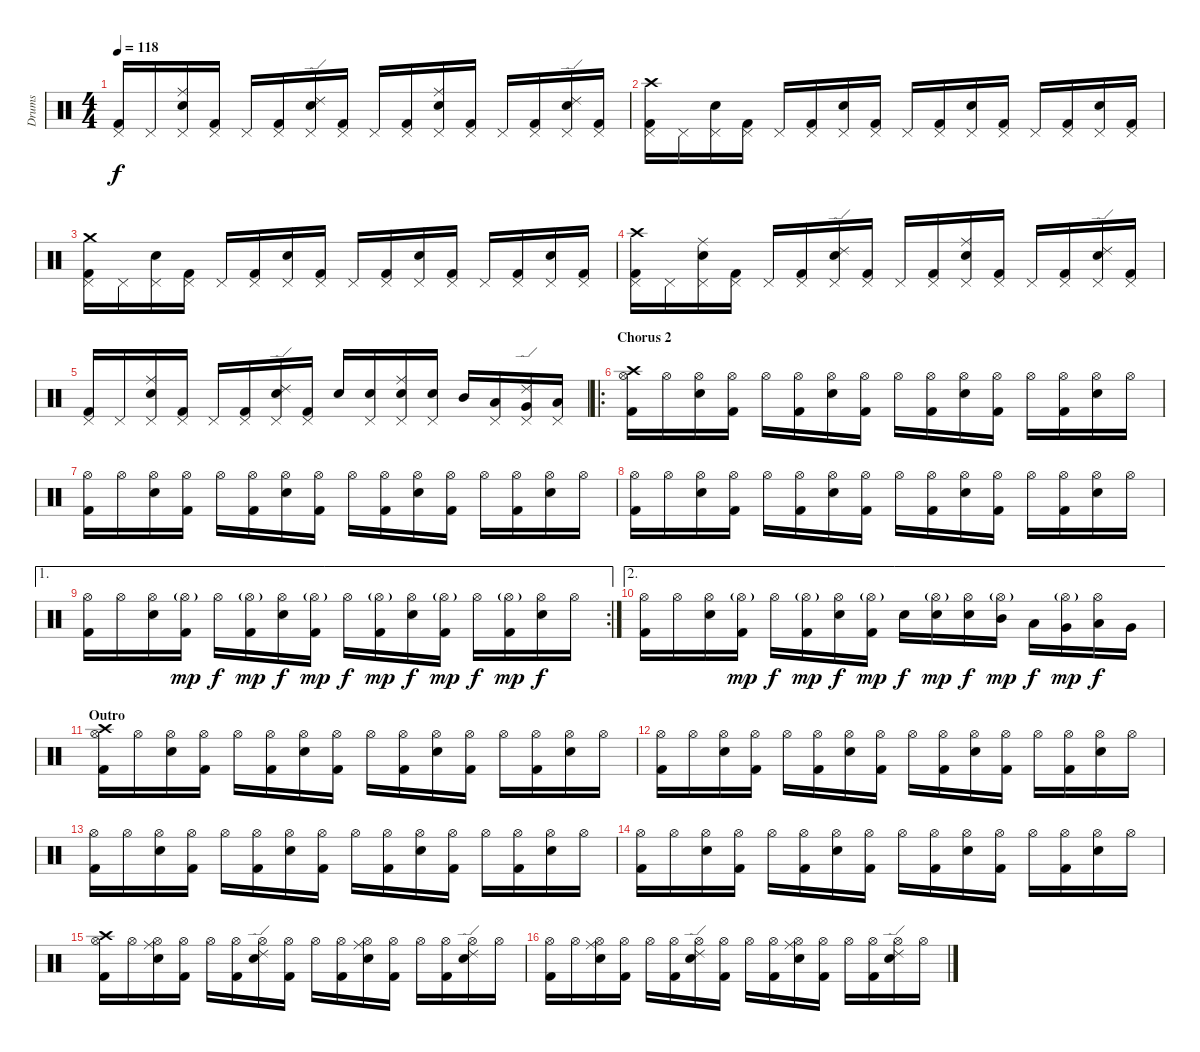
\track ("Drums" "Drums") {instrument percussion}
\staff {score}
\articulation defaults
\ts (4 4)
\tempo 118
\clef neutral
\ks c
("Kick (hit) 2" "Pedal Hi-Hat (hit)").16{dy f} "Pedal Hi-Hat (hit)".16 ("Snare (hit) 2" "Pedal Hi-Hat (hit)" "Ride (middle)").16 ("Kick (hit) 2" "Pedal Hi-Hat (hit)").16 "Pedal Hi-Hat (hit)".16 ("Kick (hit) 2" "Pedal Hi-Hat (hit)").16 ("Snare (hit) 2" "Pedal Hi-Hat (hit)" "Ride (edge) 2").16 ("Kick (hit) 2" "Pedal Hi-Hat (hit)").16 "Pedal Hi-Hat (hit)".16 ("Kick (hit) 2" "Pedal Hi-Hat (hit)").16 ("Snare (hit) 2" "Pedal Hi-Hat (hit)" "Ride (middle)").16 ("Kick (hit) 2" "Pedal Hi-Hat (hit)").16 "Pedal Hi-Hat (hit)".16 ("Kick (hit) 2" "Pedal Hi-Hat (hit)").16 ("Snare (hit) 2" "Pedal Hi-Hat (hit)" "Ride (edge) 2").16 ("Kick (hit) 2" "Pedal Hi-Hat (hit)").16 |
("Kick (hit) 2" "Pedal Hi-Hat (hit)" "Crash high (hit)").16 "Pedal Hi-Hat (hit)".16 ("Snare (hit) 2" "Pedal Hi-Hat (hit)").16 ("Kick (hit) 2" "Pedal Hi-Hat (hit)").16 "Pedal Hi-Hat (hit)".16 ("Kick (hit) 2" "Pedal Hi-Hat (hit)").16 ("Snare (hit) 2" "Pedal Hi-Hat (hit)").16 ("Kick (hit) 2" "Pedal Hi-Hat (hit)").16 "Pedal Hi-Hat (hit)".16 ("Kick (hit) 2" "Pedal Hi-Hat (hit)").16 ("Snare (hit) 2" "Pedal Hi-Hat (hit)").16 ("Kick (hit) 2" "Pedal Hi-Hat (hit)").16 "Pedal Hi-Hat (hit)".16 ("Kick (hit) 2" "Pedal Hi-Hat (hit)").16 ("Snare (hit) 2" "Pedal Hi-Hat (hit)").16 ("Kick (hit) 2" "Pedal Hi-Hat (hit)").16 |
("Kick (hit) 2" "Pedal Hi-Hat (hit)" "Crash medium (hit)").16 "Pedal Hi-Hat (hit)".16 ("Snare (hit) 2" "Pedal Hi-Hat (hit)").16 ("Kick (hit) 2" "Pedal Hi-Hat (hit)").16 "Pedal Hi-Hat (hit)".16 ("Kick (hit) 2" "Pedal Hi-Hat (hit)").16 ("Snare (hit) 2" "Pedal Hi-Hat (hit)").16 ("Kick (hit) 2" "Pedal Hi-Hat (hit)").16 "Pedal Hi-Hat (hit)".16 ("Kick (hit) 2" "Pedal Hi-Hat (hit)").16 ("Snare (hit) 2" "Pedal Hi-Hat (hit)").16 ("Kick (hit) 2" "Pedal Hi-Hat (hit)").16 "Pedal Hi-Hat (hit)".16 ("Kick (hit) 2" "Pedal Hi-Hat (hit)").16 ("Snare (hit) 2" "Pedal Hi-Hat (hit)").16 ("Kick (hit) 2" "Pedal Hi-Hat (hit)").16 |
("Kick (hit) 2" "Pedal Hi-Hat (hit)" "Crash high (hit)").16 "Pedal Hi-Hat (hit)".16 ("Snare (hit) 2" "Pedal Hi-Hat (hit)" "Ride (middle)").16 ("Kick (hit) 2" "Pedal Hi-Hat (hit)").16 "Pedal Hi-Hat (hit)".16 ("Kick (hit) 2" "Pedal Hi-Hat (hit)").16 ("Snare (hit) 2" "Pedal Hi-Hat (hit)" "Ride (edge) 2").16 ("Kick (hit) 2" "Pedal Hi-Hat (hit)").16 "Pedal Hi-Hat (hit)".16 ("Kick (hit) 2" "Pedal Hi-Hat (hit)").16 ("Snare (hit) 2" "Pedal Hi-Hat (hit)" "Ride (middle)").16 ("Kick (hit) 2" "Pedal Hi-Hat (hit)").16 "Pedal Hi-Hat (hit)".16 ("Kick (hit) 2" "Pedal Hi-Hat (hit)").16 ("Snare (hit) 2" "Pedal Hi-Hat (hit)" "Ride (edge) 2").16 ("Kick (hit) 2" "Pedal Hi-Hat (hit)").16 |
("Kick (hit) 2" "Pedal Hi-Hat (hit)").16 "Pedal Hi-Hat (hit)".16 ("Snare (hit) 2" "Pedal Hi-Hat (hit)" "Ride (middle)").16 ("Kick (hit) 2" "Pedal Hi-Hat (hit)").16 "Pedal Hi-Hat (hit)".16 ("Kick (hit) 2" "Pedal Hi-Hat (hit)").16 ("Snare (hit) 2" "Pedal Hi-Hat (hit)" "Ride (edge) 2").16 ("Kick (hit) 2" "Pedal Hi-Hat (hit)").16 "Snare (hit) 2".16 ("Snare (hit) 2" "Pedal Hi-Hat (hit)").16 ("Snare (hit) 2" "Pedal Hi-Hat (hit)" "Ride (middle)").16 ("Snare (hit) 2" "Pedal Hi-Hat (hit)").16 "Mid Tom (hit)".16 ("Low Tom (hit)" "Pedal Hi-Hat (hit)").16 ("Very Low Tom (hit)" "Pedal Hi-Hat (hit)" "Ride (edge) 2").16 ("Low Floor Tom (hit)" "Pedal Hi-Hat (hit)").16 |
\ro
\section ("" "Chorus 2")
("Kick (hit) 2" "Hi-Hat (open)" "Crash high (hit)").16 "Hi-Hat (open)".16 ("Snare (hit) 2" "Hi-Hat (open)").16 ("Kick (hit) 2" "Hi-Hat (open)").16 "Hi-Hat (open)".16 ("Kick (hit) 2" "Hi-Hat (open)").16 ("Snare (hit) 2" "Hi-Hat (open)").16 ("Kick (hit) 2" "Hi-Hat (open)").16 "Hi-Hat (open)".16 ("Kick (hit) 2" "Hi-Hat (open)").16 ("Snare (hit) 2" "Hi-Hat (open)").16 ("Kick (hit) 2" "Hi-Hat (open)").16 "Hi-Hat (open)".16 ("Kick (hit) 2" "Hi-Hat (open)").16 ("Snare (hit) 2" "Hi-Hat (open)").16 "Hi-Hat (open)".16 |
("Kick (hit) 2" "Hi-Hat (open)").16 "Hi-Hat (open)".16 ("Snare (hit) 2" "Hi-Hat (open)").16 ("Kick (hit) 2" "Hi-Hat (open)").16 "Hi-Hat (open)".16 ("Kick (hit) 2" "Hi-Hat (open)").16 ("Snare (hit) 2" "Hi-Hat (open)").16 ("Kick (hit) 2" "Hi-Hat (open)").16 "Hi-Hat (open)".16 ("Kick (hit) 2" "Hi-Hat (open)").16 ("Snare (hit) 2" "Hi-Hat (open)").16 ("Kick (hit) 2" "Hi-Hat (open)").16 "Hi-Hat (open)".16 ("Kick (hit) 2" "Hi-Hat (open)").16 ("Snare (hit) 2" "Hi-Hat (open)").16 "Hi-Hat (open)".16 |
("Kick (hit) 2" "Hi-Hat (open)").16 "Hi-Hat (open)".16 ("Snare (hit) 2" "Hi-Hat (open)").16 ("Kick (hit) 2" "Hi-Hat (open)").16 "Hi-Hat (open)".16 ("Kick (hit) 2" "Hi-Hat (open)").16 ("Snare (hit) 2" "Hi-Hat (open)").16 ("Kick (hit) 2" "Hi-Hat (open)").16 "Hi-Hat (open)".16 ("Kick (hit) 2" "Hi-Hat (open)").16 ("Snare (hit) 2" "Hi-Hat (open)").16 ("Kick (hit) 2" "Hi-Hat (open)").16 "Hi-Hat (open)".16 ("Kick (hit) 2" "Hi-Hat (open)").16 ("Snare (hit) 2" "Hi-Hat (open)").16 "Hi-Hat (open)".16 |
\ae 1
\rc 2
("Kick (hit) 2" "Hi-Hat (open)").16 "Hi-Hat (open)".16 ("Snare (hit) 2" "Hi-Hat (open)").16 ("Kick (hit) 2" "Hi-Hat (open)"{g}).16{dy mp} "Hi-Hat (open)".16{dy f} ("Kick (hit) 2" "Hi-Hat (open)"{g}).16{dy mp} ("Snare (hit) 2" "Hi-Hat (open)").16{dy f} ("Kick (hit) 2" "Hi-Hat (open)"{g}).16{dy mp} "Hi-Hat (open)".16{dy f} ("Kick (hit) 2" "Hi-Hat (open)"{g}).16{dy mp} ("Snare (hit) 2" "Hi-Hat (open)").16{dy f} ("Kick (hit) 2" "Hi-Hat (open)"{g}).16{dy mp} "Hi-Hat (open)".16{dy f} ("Kick (hit) 2" "Hi-Hat (open)"{g}).16{dy mp} ("Snare (hit) 2" "Hi-Hat (open)").16{dy f} "Hi-Hat (open)".16 |
\ae 2
("Kick (hit) 2" "Hi-Hat (open)").16 "Hi-Hat (open)".16 ("Snare (hit) 2" "Hi-Hat (open)").16 ("Kick (hit) 2" "Hi-Hat (open)"{g}).16{dy mp} "Hi-Hat (open)".16{dy f} ("Kick (hit) 2" "Hi-Hat (open)"{g}).16{dy mp} ("Snare (hit) 2" "Hi-Hat (open)").16{dy f} ("Kick (hit) 2" "Hi-Hat (open)"{g}).16{dy mp} "Snare (hit) 2".16{dy f} ("Snare (hit) 2" "Hi-Hat (open)"{g}).16{dy mp} ("Snare (hit) 2" "Hi-Hat (open)").16{dy f} ("Mid Tom (hit)" "Hi-Hat (open)"{g}).16{dy mp} "Low Tom (hit)".16{dy f} ("Very Low Tom (hit)" "Hi-Hat (open)"{g}).16{dy mp} ("Low Floor Tom (hit)" "Hi-Hat (open)").16{dy f} "Very Low Tom (hit)".16 |
\section ("" "Outro")
("Kick (hit) 2" "Hi-Hat (open)" "Crash high (hit)").16 "Hi-Hat (open)".16 ("Snare (hit) 2" "Hi-Hat (open)").16 ("Kick (hit) 2" "Hi-Hat (open)").16 "Hi-Hat (open)".16 ("Kick (hit) 2" "Hi-Hat (open)").16 ("Snare (hit) 2" "Hi-Hat (open)").16 ("Kick (hit) 2" "Hi-Hat (open)").16 "Hi-Hat (open)".16 ("Kick (hit) 2" "Hi-Hat (open)").16 ("Snare (hit) 2" "Hi-Hat (open)").16 ("Kick (hit) 2" "Hi-Hat (open)").16 "Hi-Hat (open)".16 ("Kick (hit) 2" "Hi-Hat (open)").16 ("Snare (hit) 2" "Hi-Hat (open)").16 "Hi-Hat (open)".16 |
("Kick (hit) 2" "Hi-Hat (open)").16 "Hi-Hat (open)".16 ("Snare (hit) 2" "Hi-Hat (open)").16 ("Kick (hit) 2" "Hi-Hat (open)").16 "Hi-Hat (open)".16 ("Kick (hit) 2" "Hi-Hat (open)").16 ("Snare (hit) 2" "Hi-Hat (open)").16 ("Kick (hit) 2" "Hi-Hat (open)").16 "Hi-Hat (open)".16 ("Kick (hit) 2" "Hi-Hat (open)").16 ("Snare (hit) 2" "Hi-Hat (open)").16 ("Kick (hit) 2" "Hi-Hat (open)").16 "Hi-Hat (open)".16 ("Kick (hit) 2" "Hi-Hat (open)").16 ("Snare (hit) 2" "Hi-Hat (open)").16 "Hi-Hat (open)".16 |
("Kick (hit) 2" "Hi-Hat (open)").16 "Hi-Hat (open)".16 ("Snare (hit) 2" "Hi-Hat (open)").16 ("Kick (hit) 2" "Hi-Hat (open)").16 "Hi-Hat (open)".16 ("Kick (hit) 2" "Hi-Hat (open)").16 ("Snare (hit) 2" "Hi-Hat (open)").16 ("Kick (hit) 2" "Hi-Hat (open)").16 "Hi-Hat (open)".16 ("Kick (hit) 2" "Hi-Hat (open)").16 ("Snare (hit) 2" "Hi-Hat (open)").16 ("Kick (hit) 2" "Hi-Hat (open)").16 "Hi-Hat (open)".16 ("Kick (hit) 2" "Hi-Hat (open)").16 ("Snare (hit) 2" "Hi-Hat (open)").16 "Hi-Hat (open)".16 |
("Kick (hit) 2" "Hi-Hat (open)").16 "Hi-Hat (open)".16 ("Snare (hit) 2" "Hi-Hat (open)").16 ("Kick (hit) 2" "Hi-Hat (open)").16 "Hi-Hat (open)".16 ("Kick (hit) 2" "Hi-Hat (open)").16 ("Snare (hit) 2" "Hi-Hat (open)").16 ("Kick (hit) 2" "Hi-Hat (open)").16 "Hi-Hat (open)".16 ("Kick (hit) 2" "Hi-Hat (open)").16 ("Snare (hit) 2" "Hi-Hat (open)").16 ("Kick (hit) 2" "Hi-Hat (open)").16 "Hi-Hat (open)".16 ("Kick (hit) 2" "Hi-Hat (open)").16 ("Snare (hit) 2" "Hi-Hat (open)").16 "Hi-Hat (open)".16 |
("Kick (hit) 2" "Hi-Hat (open)" "Crash high (hit)").16 "Hi-Hat (open)".16 ("Snare (hit) 2" "Hi-Hat (open)" "Ride (middle)").16 ("Kick (hit) 2" "Hi-Hat (open)").16 "Hi-Hat (open)".16 ("Kick (hit) 2" "Hi-Hat (open)").16 ("Snare (hit) 2" "Hi-Hat (open)" "Ride (edge) 2").16 ("Kick (hit) 2" "Hi-Hat (open)").16 "Hi-Hat (open)".16 ("Kick (hit) 2" "Hi-Hat (open)").16 ("Snare (hit) 2" "Hi-Hat (open)" "Ride (middle)").16 ("Kick (hit) 2" "Hi-Hat (open)").16 "Hi-Hat (open)".16 ("Kick (hit) 2" "Hi-Hat (open)").16 ("Snare (hit) 2" "Hi-Hat (open)" "Ride (edge) 2").16 "Hi-Hat (open)".16 |
("Kick (hit) 2" "Hi-Hat (open)").16 "Hi-Hat (open)".16 ("Snare (hit) 2" "Hi-Hat (open)" "Ride (middle)").16 ("Kick (hit) 2" "Hi-Hat (open)").16 "Hi-Hat (open)".16 ("Kick (hit) 2" "Hi-Hat (open)").16 ("Snare (hit) 2" "Hi-Hat (open)" "Ride (edge) 2").16 ("Kick (hit) 2" "Hi-Hat (open)").16 "Hi-Hat (open)".16 ("Kick (hit) 2" "Hi-Hat (open)").16 ("Snare (hit) 2" "Hi-Hat (open)" "Ride (middle)").16 ("Kick (hit) 2" "Hi-Hat (open)").16 "Hi-Hat (open)".16 ("Kick (hit) 2" "Hi-Hat (open)").16 ("Snare (hit) 2" "Hi-Hat (open)" "Ride (edge) 2").16 "Hi-Hat (open)".16
